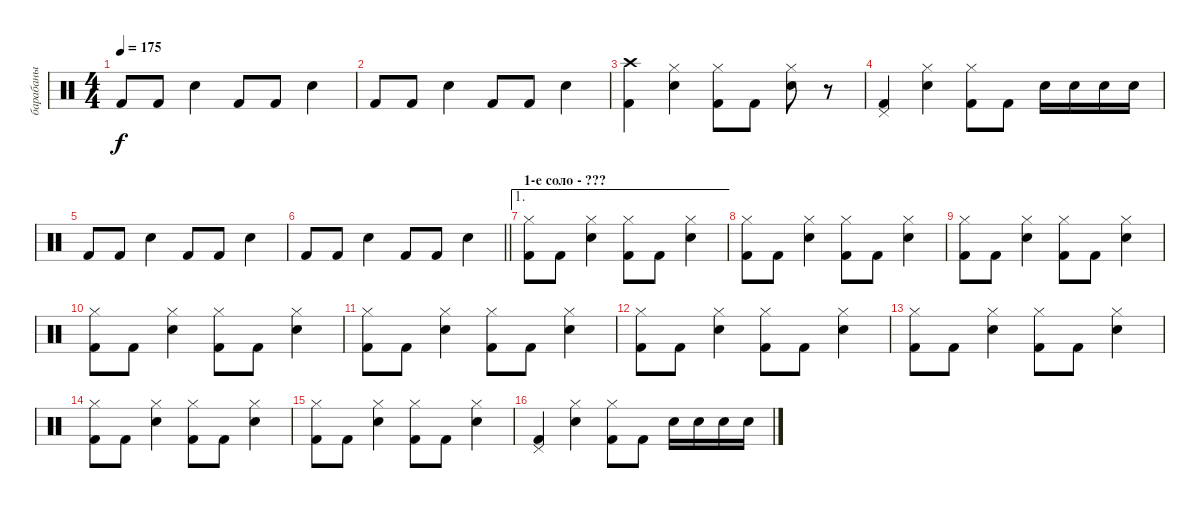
\track ("барабаны" "барабаны") {instrument percussion}
\staff {score}
\articulation defaults
\ts (4 4)
\tempo 175
\clef neutral
\ks c "Kick (hit) 2".8{dy f} "Kick (hit) 2".8 "Snare (hit) 2".4 "Kick (hit) 2".8 "Kick (hit) 2".8 "Snare (hit) 2".4
|
"Kick (hit) 2".8 "Kick (hit) 2".8 "Snare (hit) 2".4 "Kick (hit) 2".8 "Kick (hit) 2".8 "Snare (hit) 2".4 |
("Crash high (hit)" "Kick (hit) 2").4 ("Hi-Hat (closed)" "Snare (hit) 2").4 ("Hi-Hat (closed)" "Kick (hit) 2").8 "Kick (hit) 2".8 ("Hi-Hat (closed)" "Snare (hit) 2").8 r.8 |
("Pedal Hi-Hat (hit)" "Kick (hit) 2").4 ("Hi-Hat (closed)" "Snare (hit) 2").4 ("Hi-Hat (closed)" "Kick (hit) 2").8 "Kick (hit) 2".8 "Snare (hit) 2".16 "Snare (hit) 2".16 "Snare (hit) 2".16 "Snare (hit) 2".16 |
"Kick (hit) 2".8 "Kick (hit) 2".8 "Snare (hit) 2".4 "Kick (hit) 2".8 "Kick (hit) 2".8 "Snare (hit) 2".4 |
\barLineRight lightlight "Kick (hit) 2".8 "Kick (hit) 2".8 "Snare (hit) 2".4 "Kick (hit) 2".8 "Kick (hit) 2".8 "Snare (hit) 2".4
|
\ae 1
\section ("" "1-е соло - ???")
("Hi-Hat (closed)" "Kick (hit) 2").8 "Kick (hit) 2".8 ("Hi-Hat (closed)" "Snare (hit) 2").4 ("Hi-Hat (closed)" "Kick (hit) 2").8 "Kick (hit) 2".8 ("Hi-Hat (closed)" "Snare (hit) 2").4 |
("Hi-Hat (closed)" "Kick (hit) 2").8 "Kick (hit) 2".8 ("Hi-Hat (closed)" "Snare (hit) 2").4 ("Hi-Hat (closed)" "Kick (hit) 2").8 "Kick (hit) 2".8 ("Hi-Hat (closed)" "Snare (hit) 2").4 |
("Hi-Hat (closed)" "Kick (hit) 2").8 "Kick (hit) 2".8 ("Hi-Hat (closed)" "Snare (hit) 2").4 ("Hi-Hat (closed)" "Kick (hit) 2").8 "Kick (hit) 2".8 ("Hi-Hat (closed)" "Snare (hit) 2").4 |
("Hi-Hat (closed)" "Kick (hit) 2").8 "Kick (hit) 2".8 ("Hi-Hat (closed)" "Snare (hit) 2").4 ("Hi-Hat (closed)" "Kick (hit) 2").8 "Kick (hit) 2".8 ("Hi-Hat (closed)" "Snare (hit) 2").4 |
("Hi-Hat (closed)" "Kick (hit) 2").8 "Kick (hit) 2".8 ("Hi-Hat (closed)" "Snare (hit) 2").4 ("Hi-Hat (closed)" "Kick (hit) 2").8 "Kick (hit) 2".8 ("Hi-Hat (closed)" "Snare (hit) 2").4 |
("Hi-Hat (closed)" "Kick (hit) 2").8 "Kick (hit) 2".8 ("Hi-Hat (closed)" "Snare (hit) 2").4 ("Hi-Hat (closed)" "Kick (hit) 2").8 "Kick (hit) 2".8 ("Hi-Hat (closed)" "Snare (hit) 2").4 |
("Hi-Hat (closed)" "Kick (hit) 2").8 "Kick (hit) 2".8 ("Hi-Hat (closed)" "Snare (hit) 2").4 ("Hi-Hat (closed)" "Kick (hit) 2").8 "Kick (hit) 2".8 ("Hi-Hat (closed)" "Snare (hit) 2").4 |
("Hi-Hat (closed)" "Kick (hit) 2").8 "Kick (hit) 2".8 ("Hi-Hat (closed)" "Snare (hit) 2").4 ("Hi-Hat (closed)" "Kick (hit) 2").8 "Kick (hit) 2".8 ("Hi-Hat (closed)" "Snare (hit) 2").4 |
("Hi-Hat (closed)" "Kick (hit) 2").8 "Kick (hit) 2".8 ("Hi-Hat (closed)" "Snare (hit) 2").4 ("Hi-Hat (closed)" "Kick (hit) 2").8 "Kick (hit) 2".8 ("Hi-Hat (closed)" "Snare (hit) 2").4 |
("Pedal Hi-Hat (hit)" "Kick (hit) 2").4 ("Hi-Hat (closed)" "Snare (hit) 2").4 ("Hi-Hat (closed)" "Kick (hit) 2").8 "Kick (hit) 2".8 "Snare (hit) 2".16 "Snare (hit) 2".16 "Snare (hit) 2".16 "Snare (hit) 2".16
